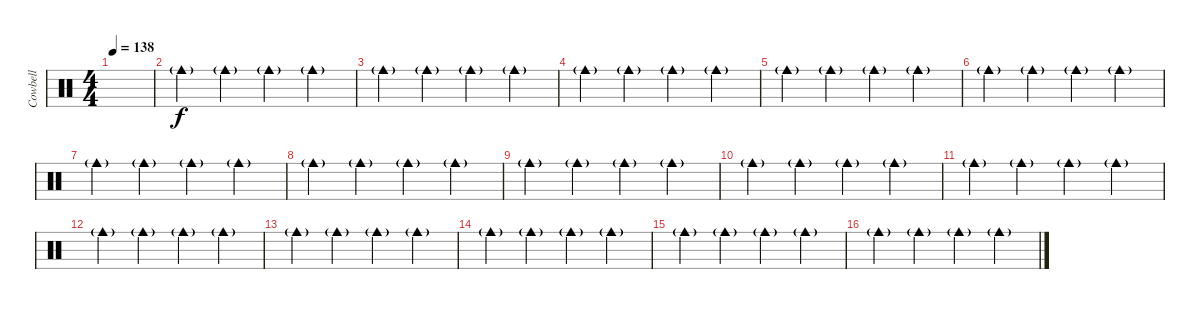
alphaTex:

\track ("Cowbell" "Cowbell") {instrument percussion}
\staff {score}
\articulation defaults
\ts (4 4)
\tempo 138
\clef neutral
\ks c
|
"Cowbell medium (hit)"{g}.4 "Cowbell medium (hit)"{g}.4 "Cowbell medium (hit)"{g}.4 "Cowbell medium (hit)"{g}.4 |
"Cowbell medium (hit)"{g}.4 "Cowbell medium (hit)"{g}.4 "Cowbell medium (hit)"{g}.4 "Cowbell medium (hit)"{g}.4 |
"Cowbell medium (hit)"{g}.4 "Cowbell medium (hit)"{g}.4 "Cowbell medium (hit)"{g}.4 "Cowbell medium (hit)"{g}.4 |
"Cowbell medium (hit)"{g}.4 "Cowbell medium (hit)"{g}.4 "Cowbell medium (hit)"{g}.4 "Cowbell medium (hit)"{g}.4 |
"Cowbell medium (hit)"{g}.4 "Cowbell medium (hit)"{g}.4 "Cowbell medium (hit)"{g}.4 "Cowbell medium (hit)"{g}.4 |
"Cowbell medium (hit)"{g}.4 "Cowbell medium (hit)"{g}.4 "Cowbell medium (hit)"{g}.4 "Cowbell medium (hit)"{g}.4 |
"Cowbell medium (hit)"{g}.4 "Cowbell medium (hit)"{g}.4 "Cowbell medium (hit)"{g}.4 "Cowbell medium (hit)"{g}.4 |
"Cowbell medium (hit)"{g}.4 "Cowbell medium (hit)"{g}.4 "Cowbell medium (hit)"{g}.4 "Cowbell medium (hit)"{g}.4 |
"Cowbell medium (hit)"{g}.4 "Cowbell medium (hit)"{g}.4 "Cowbell medium (hit)"{g}.4 "Cowbell medium (hit)"{g}.4 |
"Cowbell medium (hit)"{g}.4 "Cowbell medium (hit)"{g}.4 "Cowbell medium (hit)"{g}.4 "Cowbell medium (hit)"{g}.4 |
"Cowbell medium (hit)"{g}.4 "Cowbell medium (hit)"{g}.4 "Cowbell medium (hit)"{g}.4 "Cowbell medium (hit)"{g}.4 |
"Cowbell medium (hit)"{g}.4 "Cowbell medium (hit)"{g}.4 "Cowbell medium (hit)"{g}.4 "Cowbell medium (hit)"{g}.4 |
"Cowbell medium (hit)"{g}.4 "Cowbell medium (hit)"{g}.4 "Cowbell medium (hit)"{g}.4 "Cowbell medium (hit)"{g}.4 |
"Cowbell medium (hit)"{g}.4 "Cowbell medium (hit)"{g}.4 "Cowbell medium (hit)"{g}.4 "Cowbell medium (hit)"{g}.4 |
"Cowbell medium (hit)"{g}.4 "Cowbell medium (hit)"{g}.4 "Cowbell medium (hit)"{g}.4 "Cowbell medium (hit)"{g}.4
